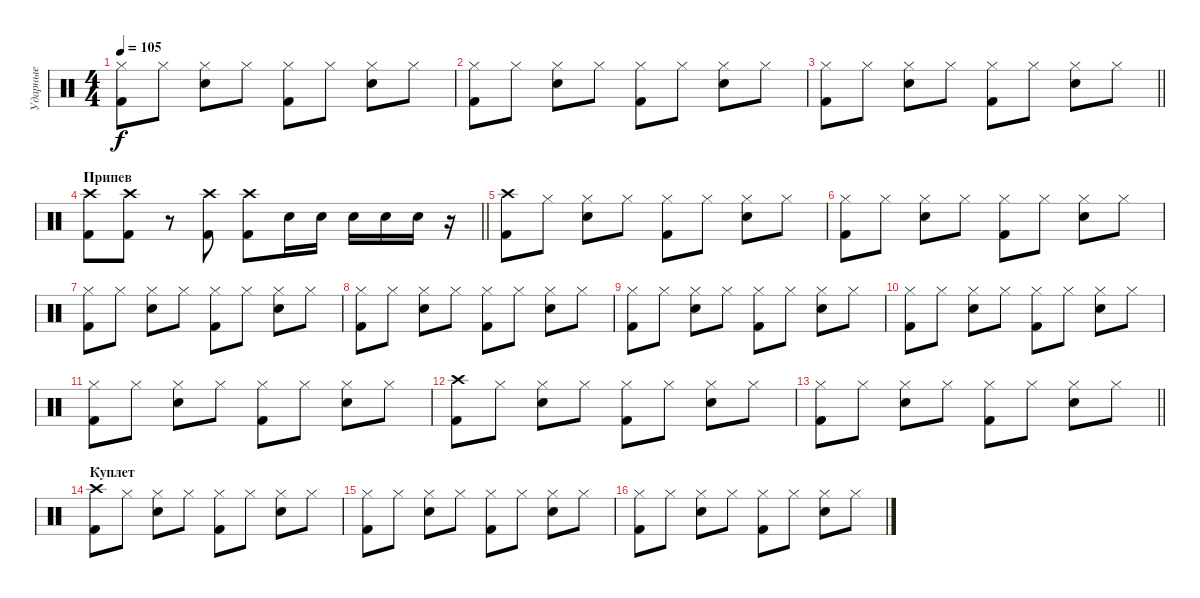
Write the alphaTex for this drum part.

\track ("Ударные" "Ударные") {instrument percussion}
\staff {score}
\articulation defaults
\ts (4 4)
\tempo 105
\clef neutral
\ks c
("Hi-Hat (closed)" "Kick (hit) 2").8{dy f} "Hi-Hat (closed)".8 ("Hi-Hat (closed)" "Snare (hit) 2").8 "Hi-Hat (closed)".8 ("Hi-Hat (closed)" "Kick (hit) 2").8 "Hi-Hat (closed)".8 ("Hi-Hat (closed)" "Snare (hit) 2").8 "Hi-Hat (closed)".8 |
("Hi-Hat (closed)" "Kick (hit) 2").8 "Hi-Hat (closed)".8 ("Hi-Hat (closed)" "Snare (hit) 2").8 "Hi-Hat (closed)".8 ("Hi-Hat (closed)" "Kick (hit) 2").8 "Hi-Hat (closed)".8 ("Hi-Hat (closed)" "Snare (hit) 2").8 "Hi-Hat (closed)".8 |
\barLineRight lightlight
("Hi-Hat (closed)" "Kick (hit) 2").8 "Hi-Hat (closed)".8 ("Hi-Hat (closed)" "Snare (hit) 2").8 "Hi-Hat (closed)".8 ("Hi-Hat (closed)" "Kick (hit) 2").8 "Hi-Hat (closed)".8 ("Hi-Hat (closed)" "Snare (hit) 2").8 "Hi-Hat (closed)".8 |
\section ("" "Припев")
\barLineRight lightlight
("Kick (hit) 2" "Crash high (hit)").8 ("Kick (hit) 2" "Crash high (hit)").8 r.8 ("Kick (hit) 2" "Crash high (hit)").8 ("Kick (hit) 2" "Crash high (hit)").8 "Snare (hit) 2".16 "Snare (hit) 2".16 "Snare (hit) 2".16 "Snare (hit) 2".16 "Snare (hit) 2".16 r.16 |
("Crash high (hit)" "Kick (hit) 2").8 "Hi-Hat (closed)".8 ("Hi-Hat (closed)" "Snare (hit) 2").8 "Hi-Hat (closed)".8 ("Hi-Hat (closed)" "Kick (hit) 2").8 "Hi-Hat (closed)".8 ("Hi-Hat (closed)" "Snare (hit) 2").8 "Hi-Hat (closed)".8 |
("Hi-Hat (closed)" "Kick (hit) 2").8 "Hi-Hat (closed)".8 ("Hi-Hat (closed)" "Snare (hit) 2").8 "Hi-Hat (closed)".8 ("Hi-Hat (closed)" "Kick (hit) 2").8 "Hi-Hat (closed)".8 ("Hi-Hat (closed)" "Snare (hit) 2").8 "Hi-Hat (closed)".8 |
("Hi-Hat (closed)" "Kick (hit) 2").8 "Hi-Hat (closed)".8 ("Hi-Hat (closed)" "Snare (hit) 2").8 "Hi-Hat (closed)".8 ("Hi-Hat (closed)" "Kick (hit) 2").8 "Hi-Hat (closed)".8 ("Hi-Hat (closed)" "Snare (hit) 2").8 "Hi-Hat (closed)".8 |
("Hi-Hat (closed)" "Kick (hit) 2").8 "Hi-Hat (closed)".8 ("Hi-Hat (closed)" "Snare (hit) 2").8 "Hi-Hat (closed)".8 ("Hi-Hat (closed)" "Kick (hit) 2").8 "Hi-Hat (closed)".8 ("Hi-Hat (closed)" "Snare (hit) 2").8 "Hi-Hat (closed)".8 |
("Hi-Hat (closed)" "Kick (hit) 2").8 "Hi-Hat (closed)".8 ("Hi-Hat (closed)" "Snare (hit) 2").8 "Hi-Hat (closed)".8 ("Hi-Hat (closed)" "Kick (hit) 2").8 "Hi-Hat (closed)".8 ("Hi-Hat (closed)" "Snare (hit) 2").8 "Hi-Hat (closed)".8 |
("Hi-Hat (closed)" "Kick (hit) 2").8 "Hi-Hat (closed)".8 ("Hi-Hat (closed)" "Snare (hit) 2").8 "Hi-Hat (closed)".8 ("Hi-Hat (closed)" "Kick (hit) 2").8 "Hi-Hat (closed)".8 ("Hi-Hat (closed)" "Snare (hit) 2").8 "Hi-Hat (closed)".8 |
("Hi-Hat (closed)" "Kick (hit) 2").8 "Hi-Hat (closed)".8 ("Hi-Hat (closed)" "Snare (hit) 2").8 "Hi-Hat (closed)".8 ("Hi-Hat (closed)" "Kick (hit) 2").8 "Hi-Hat (closed)".8 ("Hi-Hat (closed)" "Snare (hit) 2").8 "Hi-Hat (closed)".8 |
("Crash high (hit)" "Kick (hit) 2").8 "Hi-Hat (closed)".8 ("Hi-Hat (closed)" "Snare (hit) 2").8 "Hi-Hat (closed)".8 ("Hi-Hat (closed)" "Kick (hit) 2").8 "Hi-Hat (closed)".8 ("Hi-Hat (closed)" "Snare (hit) 2").8 "Hi-Hat (closed)".8 |
\barLineRight lightlight
("Hi-Hat (closed)" "Kick (hit) 2").8 "Hi-Hat (closed)".8 ("Hi-Hat (closed)" "Snare (hit) 2").8 "Hi-Hat (closed)".8 ("Hi-Hat (closed)" "Kick (hit) 2").8 "Hi-Hat (closed)".8 ("Hi-Hat (closed)" "Snare (hit) 2").8 "Hi-Hat (closed)".8 |
\section ("" "Куплет")
("Crash high (hit)" "Kick (hit) 2").8 "Hi-Hat (closed)".8 ("Hi-Hat (closed)" "Snare (hit) 2").8 "Hi-Hat (closed)".8 ("Hi-Hat (closed)" "Kick (hit) 2").8 "Hi-Hat (closed)".8 ("Hi-Hat (closed)" "Snare (hit) 2").8 "Hi-Hat (closed)".8 |
("Hi-Hat (closed)" "Kick (hit) 2").8 "Hi-Hat (closed)".8 ("Hi-Hat (closed)" "Snare (hit) 2").8 "Hi-Hat (closed)".8 ("Hi-Hat (closed)" "Kick (hit) 2").8 "Hi-Hat (closed)".8 ("Hi-Hat (closed)" "Snare (hit) 2").8 "Hi-Hat (closed)".8 |
("Hi-Hat (closed)" "Kick (hit) 2").8 "Hi-Hat (closed)".8 ("Hi-Hat (closed)" "Snare (hit) 2").8 "Hi-Hat (closed)".8 ("Hi-Hat (closed)" "Kick (hit) 2").8 "Hi-Hat (closed)".8 ("Hi-Hat (closed)" "Snare (hit) 2").8 "Hi-Hat (closed)".8
